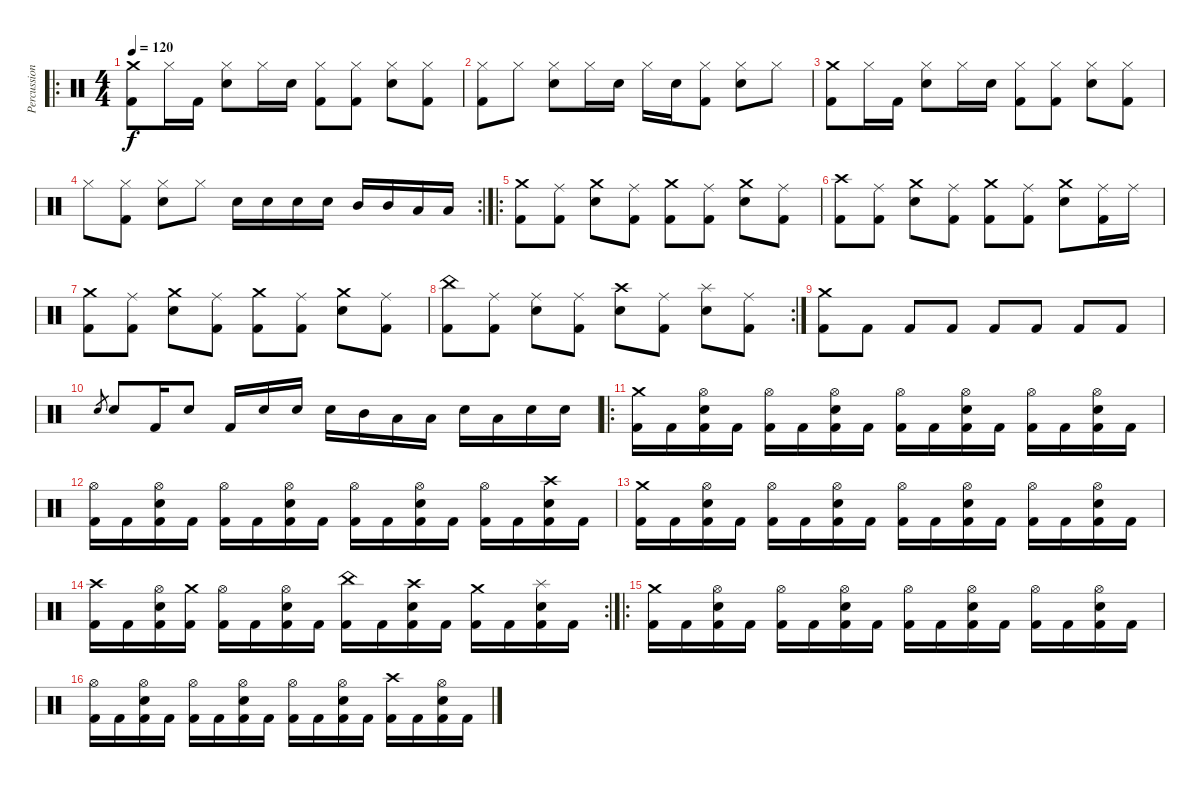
\track ("Percussions" "Percussion") {instrument percussion}
\staff {score}
\articulation defaults
\ro
\ts (4 4)
\tempo 120
\clef neutral
\ks c
("Crash medium (hit)" "Kick (hit) 2").8{dy f} "Hi-Hat (closed)".16 "Kick (hit) 2".16 ("Hi-Hat (closed)" "Snare (hit) 2").8 "Hi-Hat (closed)".16 "Snare (hit) 2".16 ("Hi-Hat (closed)" "Kick (hit) 2").8 ("Hi-Hat (closed)" "Kick (hit) 2").8 ("Hi-Hat (closed)" "Snare (hit) 2").8 ("Hi-Hat (closed)" "Kick (hit) 2").8 |
("Hi-Hat (closed)" "Kick (hit) 2").8 "Hi-Hat (closed)".8 ("Hi-Hat (closed)" "Snare (hit) 2").8 "Hi-Hat (closed)".16 "Snare (hit) 2".16 "Hi-Hat (closed)".16 "Snare (hit) 2".16 ("Hi-Hat (closed)" "Kick (hit) 2").8 ("Hi-Hat (closed)" "Snare (hit) 2").8 "Hi-Hat (closed)".8 |
("Crash medium (hit)" "Kick (hit) 2").8 "Hi-Hat (closed)".16 "Kick (hit) 2".16 ("Hi-Hat (closed)" "Snare (hit) 2").8 "Hi-Hat (closed)".16 "Snare (hit) 2".16 ("Hi-Hat (closed)" "Kick (hit) 2").8 ("Hi-Hat (closed)" "Kick (hit) 2").8 ("Hi-Hat (closed)" "Snare (hit) 2").8 ("Hi-Hat (closed)" "Kick (hit) 2").8 |
\rc 2 "Hi-Hat (closed)".8
("Hi-Hat (closed)" "Kick (hit) 2").8 ("Hi-Hat (closed)" "Snare (hit) 2").8 "Hi-Hat (closed)".8 "Snare (hit) 2".16 "Snare (hit) 2".16 "Snare (hit) 2".16 "Snare (hit) 2".16 "Mid Tom (hit)".16 "Mid Tom (hit)".16 "Low Tom (hit)".16 "Low Tom (hit)".16 |
\ro
("Crash medium (hit)" "Kick (hit) 2").8 ("Ride (middle)" "Kick (hit) 2").8 ("Crash medium (hit)" "Snare (hit) 2").8 ("Ride (middle)" "Kick (hit) 2").8 ("Crash medium (hit)" "Kick (hit) 2").8 ("Ride (middle)" "Kick (hit) 2").8 ("Crash medium (hit)" "Snare (hit) 2").8 ("Ride (middle)" "Kick (hit) 2").8 |
("Crash high (hit)" "Kick (hit) 2").8 ("Ride (middle)" "Kick (hit) 2").8 ("Crash medium (hit)" "Snare (hit) 2").8 ("Ride (middle)" "Kick (hit) 2").8 ("Crash medium (hit)" "Kick (hit) 2").8 ("Ride (middle)" "Kick (hit) 2").8 ("Crash medium (hit)" "Snare (hit) 2").8 ("Ride (middle)" "Kick (hit) 2").16 "Ride (middle)".16 |
("Crash medium (hit)" "Kick (hit) 2").8 ("Ride (middle)" "Kick (hit) 2").8 ("Crash medium (hit)" "Snare (hit) 2").8 ("Ride (middle)" "Kick (hit) 2").8 ("Crash medium (hit)" "Kick (hit) 2").8 ("Ride (middle)" "Kick (hit) 2").8 ("Crash medium (hit)" "Snare (hit) 2").8 ("Ride (middle)" "Kick (hit) 2").8 |
\rc 2
("China (hit)" "Kick (hit) 2").8 ("Ride (middle)" "Kick (hit) 2").8 ("Ride (middle)" "Snare (hit) 2").8 ("Ride (middle)" "Kick (hit) 2").8 ("Crash high (hit)" "Snare (hit) 2").8 ("Ride (middle)" "Kick (hit) 2").8 ("Splash (hit)" "Snare (hit) 2").8 ("Ride (middle)" "Kick (hit) 2").8 |
("Crash medium (hit)" "Kick (hit) 2").8 "Kick (hit) 2".8 "Kick (hit) 2".8 "Kick (hit) 2".8 "Kick (hit) 2".8 "Kick (hit) 2".8 "Kick (hit) 2".8 "Kick (hit) 2".8 |
"Snare (hit) 2".8{gr} "Snare (hit) 2".8 "Kick (hit) 2".16 "Snare (hit) 2".8 "Kick (hit) 2".16 "Snare (hit) 2".16 "Snare (hit) 2".16 "Snare (hit) 2".16 "Mid Tom (hit)".16 "Low Tom (hit)".16 "Low Tom (hit)".16 "Snare (hit) 2".16 "Low Tom (hit)".16 "Snare (hit) 2".16 "Snare (hit) 2".16 |
\ro
("Crash medium (hit)" "Kick (hit) 2").16 "Kick (hit) 2".16 ("Hi-Hat (open)" "Electric Snare (hit)" "Kick (hit) 2").16 "Kick (hit) 2".16 ("Hi-Hat (open)" "Kick (hit) 2").16 "Kick (hit) 2".16 ("Hi-Hat (open)" "Electric Snare (hit)" "Kick (hit) 2").16 "Kick (hit) 2".16 ("Hi-Hat (open)" "Kick (hit) 2").16 "Kick (hit) 2".16 ("Hi-Hat (open)" "Electric Snare (hit)" "Kick (hit) 2").16 "Kick (hit) 2".16 ("Hi-Hat (open)" "Kick (hit) 2").16 "Kick (hit) 2".16 ("Hi-Hat (open)" "Electric Snare (hit)" "Kick (hit) 2").16 "Kick (hit) 2".16 |
("Hi-Hat (open)" "Kick (hit) 2").16 "Kick (hit) 2".16 ("Hi-Hat (open)" "Electric Snare (hit)" "Kick (hit) 2").16 "Kick (hit) 2".16 ("Hi-Hat (open)" "Kick (hit) 2").16 "Kick (hit) 2".16 ("Hi-Hat (open)" "Electric Snare (hit)" "Kick (hit) 2").16 "Kick (hit) 2".16 ("Hi-Hat (open)" "Kick (hit) 2").16 "Kick (hit) 2".16 ("Hi-Hat (open)" "Electric Snare (hit)" "Kick (hit) 2").16 "Kick (hit) 2".16 ("Hi-Hat (open)" "Kick (hit) 2").16 "Kick (hit) 2".16 ("Crash high (hit)" "Electric Snare (hit)" "Kick (hit) 2").16 "Kick (hit) 2".16 |
("Crash medium (hit)" "Kick (hit) 2").16 "Kick (hit) 2".16 ("Hi-Hat (open)" "Electric Snare (hit)" "Kick (hit) 2").16 "Kick (hit) 2".16 ("Hi-Hat (open)" "Kick (hit) 2").16 "Kick (hit) 2".16 ("Hi-Hat (open)" "Electric Snare (hit)" "Kick (hit) 2").16 "Kick (hit) 2".16 ("Hi-Hat (open)" "Kick (hit) 2").16 "Kick (hit) 2".16 ("Hi-Hat (open)" "Electric Snare (hit)" "Kick (hit) 2").16 "Kick (hit) 2".16 ("Hi-Hat (open)" "Kick (hit) 2").16 "Kick (hit) 2".16 ("Hi-Hat (open)" "Electric Snare (hit)" "Kick (hit) 2").16 "Kick (hit) 2".16 |
\rc 2
("Crash high (hit)" "Kick (hit) 2").16 "Kick (hit) 2".16 ("Hi-Hat (open)" "Electric Snare (hit)" "Kick (hit) 2").16 ("Crash medium (hit)" "Kick (hit) 2").16 ("Hi-Hat (open)" "Kick (hit) 2").16 "Kick (hit) 2".16 ("Hi-Hat (open)" "Electric Snare (hit)" "Kick (hit) 2").16 "Kick (hit) 2".16 ("China (hit)" "Kick (hit) 2").16 "Kick (hit) 2".16 ("Crash high (hit)" "Electric Snare (hit)" "Kick (hit) 2").16 "Kick (hit) 2".16 ("Crash medium (hit)" "Kick (hit) 2").16 "Kick (hit) 2".16 ("Splash (hit)" "Electric Snare (hit)" "Kick (hit) 2").16 "Kick (hit) 2".16 |
\ro
("Crash medium (hit)" "Kick (hit) 2").16 "Kick (hit) 2".16 ("Hi-Hat (open)" "Electric Snare (hit)" "Kick (hit) 2").16 "Kick (hit) 2".16 ("Hi-Hat (open)" "Kick (hit) 2").16 "Kick (hit) 2".16 ("Hi-Hat (open)" "Electric Snare (hit)" "Kick (hit) 2").16 "Kick (hit) 2".16 ("Hi-Hat (open)" "Kick (hit) 2").16 "Kick (hit) 2".16 ("Hi-Hat (open)" "Electric Snare (hit)" "Kick (hit) 2").16 "Kick (hit) 2".16 ("Hi-Hat (open)" "Kick (hit) 2").16 "Kick (hit) 2".16 ("Hi-Hat (open)" "Electric Snare (hit)" "Kick (hit) 2").16 "Kick (hit) 2".16 |
("Hi-Hat (open)" "Kick (hit) 2").16 "Kick (hit) 2".16 ("Hi-Hat (open)" "Electric Snare (hit)" "Kick (hit) 2").16 "Kick (hit) 2".16 ("Hi-Hat (open)" "Kick (hit) 2").16 "Kick (hit) 2".16 ("Hi-Hat (open)" "Electric Snare (hit)" "Kick (hit) 2").16 "Kick (hit) 2".16 ("Hi-Hat (open)" "Kick (hit) 2").16 "Kick (hit) 2".16 ("Hi-Hat (open)" "Electric Snare (hit)" "Kick (hit) 2").16 "Kick (hit) 2".16 ("Crash high (hit)" "Kick (hit) 2").16 "Kick (hit) 2".16 ("Hi-Hat (open)" "Electric Snare (hit)" "Kick (hit) 2").16 "Kick (hit) 2".16
